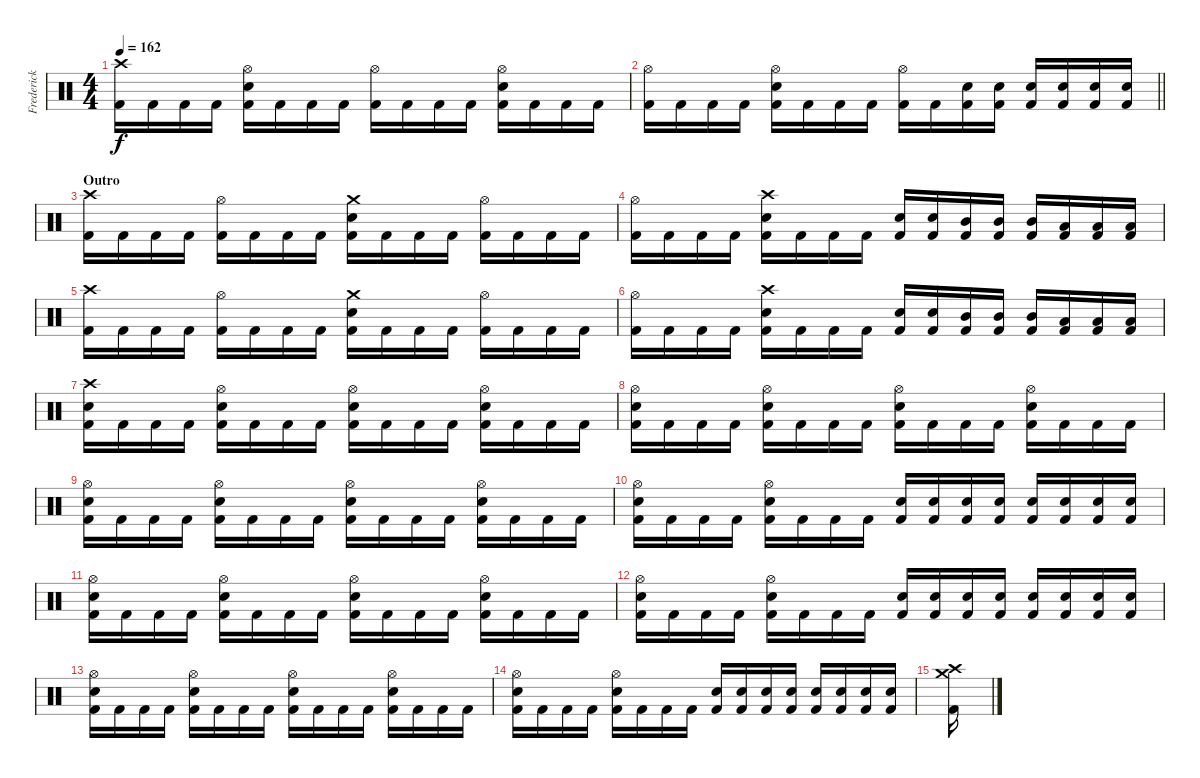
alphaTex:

\track ("Frederick Ehmke" "Frederick ") {instrument percussion}
\staff {score}
\articulation defaults
\ts (4 4)
\tempo 162
\clef neutral
\ks c
("Crash high (hit)" "Kick (hit) 2").16{dy f} "Kick (hit) 2".16 "Kick (hit) 2".16 "Kick (hit) 2".16 ("Electric Snare (hit)" "Hi-Hat (open)" "Kick (hit) 2").16 "Kick (hit) 2".16 "Kick (hit) 2".16 "Kick (hit) 2".16 ("Hi-Hat (open)" "Kick (hit) 2").16 "Kick (hit) 2".16 "Kick (hit) 2".16 "Kick (hit) 2".16 ("Electric Snare (hit)" "Hi-Hat (open)" "Kick (hit) 2").16 "Kick (hit) 2".16 "Kick (hit) 2".16 "Kick (hit) 2".16 |
\barLineRight lightlight
("Hi-Hat (open)" "Kick (hit) 2").16 "Kick (hit) 2".16 "Kick (hit) 2".16 "Kick (hit) 2".16 ("Electric Snare (hit)" "Hi-Hat (open)" "Kick (hit) 2").16 "Kick (hit) 2".16 "Kick (hit) 2".16 "Kick (hit) 2".16 ("Hi-Hat (open)" "Kick (hit) 2").16 "Kick (hit) 2".16 ("Electric Snare (hit)" "Kick (hit) 2").16 ("Electric Snare (hit)" "Kick (hit) 2").16 ("Electric Snare (hit)" "Kick (hit) 2").16 ("Electric Snare (hit)" "Kick (hit) 2").16 ("Electric Snare (hit)" "Kick (hit) 2").16 ("Electric Snare (hit)" "Kick (hit) 2").16 |
\section ("" "Outro")
("Crash high (hit)" "Kick (hit) 2").16 "Kick (hit) 2".16 "Kick (hit) 2".16 "Kick (hit) 2".16 ("Hi-Hat (open)" "Kick (hit) 2").16 "Kick (hit) 2".16 "Kick (hit) 2".16 "Kick (hit) 2".16 ("Electric Snare (hit)" "Crash medium (hit)" "Kick (hit) 2").16 "Kick (hit) 2".16 "Kick (hit) 2".16 "Kick (hit) 2".16 ("Hi-Hat (open)" "Kick (hit) 2").16 "Kick (hit) 2".16 "Kick (hit) 2".16 "Kick (hit) 2".16 |
("Hi-Hat (open)" "Kick (hit) 2").16 "Kick (hit) 2".16 "Kick (hit) 2".16 "Kick (hit) 2".16 ("Electric Snare (hit)" "Crash high (hit)" "Kick (hit) 2").16 "Kick (hit) 2".16 "Kick (hit) 2".16 "Kick (hit) 2".16 ("Electric Snare (hit)" "Kick (hit) 2").16 ("Electric Snare (hit)" "Kick (hit) 2").16 ("Mid Tom (hit)" "Kick (hit) 2").16 ("Mid Tom (hit)" "Kick (hit) 2").16 ("Mid Tom (hit)" "Kick (hit) 2").16 ("Low Tom (hit)" "Kick (hit) 2").16 ("Low Tom (hit)" "Kick (hit) 2").16 ("Low Tom (hit)" "Kick (hit) 2").16 |
("Crash high (hit)" "Kick (hit) 2").16 "Kick (hit) 2".16 "Kick (hit) 2".16 "Kick (hit) 2".16 ("Hi-Hat (open)" "Kick (hit) 2").16 "Kick (hit) 2".16 "Kick (hit) 2".16 "Kick (hit) 2".16 ("Electric Snare (hit)" "Crash medium (hit)" "Kick (hit) 2").16 "Kick (hit) 2".16 "Kick (hit) 2".16 "Kick (hit) 2".16 ("Hi-Hat (open)" "Kick (hit) 2").16 "Kick (hit) 2".16 "Kick (hit) 2".16 "Kick (hit) 2".16 |
("Hi-Hat (open)" "Kick (hit) 2").16 "Kick (hit) 2".16 "Kick (hit) 2".16 "Kick (hit) 2".16 ("Electric Snare (hit)" "Crash high (hit)" "Kick (hit) 2").16 "Kick (hit) 2".16 "Kick (hit) 2".16 "Kick (hit) 2".16 ("Electric Snare (hit)" "Kick (hit) 2").16 ("Electric Snare (hit)" "Kick (hit) 2").16 ("Mid Tom (hit)" "Kick (hit) 2").16 ("Mid Tom (hit)" "Kick (hit) 2").16 ("Mid Tom (hit)" "Kick (hit) 2").16 ("Low Tom (hit)" "Kick (hit) 2").16 ("Low Tom (hit)" "Kick (hit) 2").16 ("Low Tom (hit)" "Kick (hit) 2").16 |
("Electric Snare (hit)" "Crash high (hit)" "Kick (hit) 2").16 "Kick (hit) 2".16 "Kick (hit) 2".16 "Kick (hit) 2".16 ("Electric Snare (hit)" "Hi-Hat (open)" "Kick (hit) 2").16 "Kick (hit) 2".16 "Kick (hit) 2".16 "Kick (hit) 2".16 ("Electric Snare (hit)" "Hi-Hat (open)" "Kick (hit) 2").16 "Kick (hit) 2".16 "Kick (hit) 2".16 "Kick (hit) 2".16 ("Electric Snare (hit)" "Hi-Hat (open)" "Kick (hit) 2").16 "Kick (hit) 2".16 "Kick (hit) 2".16 "Kick (hit) 2".16 |
("Electric Snare (hit)" "Hi-Hat (open)" "Kick (hit) 2").16 "Kick (hit) 2".16 "Kick (hit) 2".16 "Kick (hit) 2".16 ("Electric Snare (hit)" "Hi-Hat (open)" "Kick (hit) 2").16 "Kick (hit) 2".16 "Kick (hit) 2".16 "Kick (hit) 2".16 ("Electric Snare (hit)" "Hi-Hat (open)" "Kick (hit) 2").16 "Kick (hit) 2".16 "Kick (hit) 2".16 "Kick (hit) 2".16 ("Electric Snare (hit)" "Hi-Hat (open)" "Kick (hit) 2").16 "Kick (hit) 2".16 "Kick (hit) 2".16 "Kick (hit) 2".16 |
("Electric Snare (hit)" "Hi-Hat (open)" "Kick (hit) 2").16 "Kick (hit) 2".16 "Kick (hit) 2".16 "Kick (hit) 2".16 ("Electric Snare (hit)" "Hi-Hat (open)" "Kick (hit) 2").16 "Kick (hit) 2".16 "Kick (hit) 2".16 "Kick (hit) 2".16 ("Electric Snare (hit)" "Hi-Hat (open)" "Kick (hit) 2").16 "Kick (hit) 2".16 "Kick (hit) 2".16 "Kick (hit) 2".16 ("Electric Snare (hit)" "Hi-Hat (open)" "Kick (hit) 2").16 "Kick (hit) 2".16 "Kick (hit) 2".16 "Kick (hit) 2".16 |
("Electric Snare (hit)" "Hi-Hat (open)" "Kick (hit) 2").16 "Kick (hit) 2".16 "Kick (hit) 2".16 "Kick (hit) 2".16 ("Electric Snare (hit)" "Hi-Hat (open)" "Kick (hit) 2").16 "Kick (hit) 2".16 "Kick (hit) 2".16 "Kick (hit) 2".16 ("Electric Snare (hit)" "Kick (hit) 2").16{volume 16} ("Electric Snare (hit)" "Kick (hit) 2").16 ("Electric Snare (hit)" "Kick (hit) 2").16 ("Electric Snare (hit)" "Kick (hit) 2").16 ("Electric Snare (hit)" "Kick (hit) 2").16 ("Electric Snare (hit)" "Kick (hit) 2").16 ("Electric Snare (hit)" "Kick (hit) 2").16 ("Electric Snare (hit)" "Kick (hit) 2").16 |
("Electric Snare (hit)" "Hi-Hat (open)" "Kick (hit) 2").16{volume 13} "Kick (hit) 2".16 "Kick (hit) 2".16 "Kick (hit) 2".16 ("Electric Snare (hit)" "Hi-Hat (open)" "Kick (hit) 2").16 "Kick (hit) 2".16 "Kick (hit) 2".16 "Kick (hit) 2".16 ("Electric Snare (hit)" "Hi-Hat (open)" "Kick (hit) 2").16 "Kick (hit) 2".16 "Kick (hit) 2".16 "Kick (hit) 2".16 ("Electric Snare (hit)" "Hi-Hat (open)" "Kick (hit) 2").16 "Kick (hit) 2".16 "Kick (hit) 2".16 "Kick (hit) 2".16 |
("Electric Snare (hit)" "Hi-Hat (open)" "Kick (hit) 2").16 "Kick (hit) 2".16 "Kick (hit) 2".16 "Kick (hit) 2".16 ("Electric Snare (hit)" "Hi-Hat (open)" "Kick (hit) 2").16 "Kick (hit) 2".16 "Kick (hit) 2".16 "Kick (hit) 2".16 ("Electric Snare (hit)" "Kick (hit) 2").16{volume 16} ("Electric Snare (hit)" "Kick (hit) 2").16 ("Electric Snare (hit)" "Kick (hit) 2").16 ("Electric Snare (hit)" "Kick (hit) 2").16 ("Electric Snare (hit)" "Kick (hit) 2").16 ("Electric Snare (hit)" "Kick (hit) 2").16 ("Electric Snare (hit)" "Kick (hit) 2").16 ("Electric Snare (hit)" "Kick (hit) 2").16 |
("Electric Snare (hit)" "Hi-Hat (open)" "Kick (hit) 2").16{volume 13} "Kick (hit) 2".16 "Kick (hit) 2".16 "Kick (hit) 2".16 ("Electric Snare (hit)" "Hi-Hat (open)" "Kick (hit) 2").16 "Kick (hit) 2".16 "Kick (hit) 2".16 "Kick (hit) 2".16 ("Electric Snare (hit)" "Hi-Hat (open)" "Kick (hit) 2").16 "Kick (hit) 2".16 "Kick (hit) 2".16 "Kick (hit) 2".16 ("Electric Snare (hit)" "Hi-Hat (open)" "Kick (hit) 2").16 "Kick (hit) 2".16 "Kick (hit) 2".16 "Kick (hit) 2".16 |
("Electric Snare (hit)" "Hi-Hat (open)" "Kick (hit) 2").16 "Kick (hit) 2".16 "Kick (hit) 2".16 "Kick (hit) 2".16 ("Electric Snare (hit)" "Hi-Hat (open)" "Kick (hit) 2").16 "Kick (hit) 2".16 "Kick (hit) 2".16 "Kick (hit) 2".16 ("Electric Snare (hit)" "Kick (hit) 2").16{volume 16} ("Electric Snare (hit)" "Kick (hit) 2").16 ("Electric Snare (hit)" "Kick (hit) 2").16 ("Electric Snare (hit)" "Kick (hit) 2").16 ("Electric Snare (hit)" "Kick (hit) 2").16 ("Electric Snare (hit)" "Kick (hit) 2").16 ("Electric Snare (hit)" "Kick (hit) 2").16 ("Electric Snare (hit)" "Kick (hit) 2").16 |
("Crash medium (hit)" "Crash high (hit)" "Kick (hit) 2").16{volume 13}
